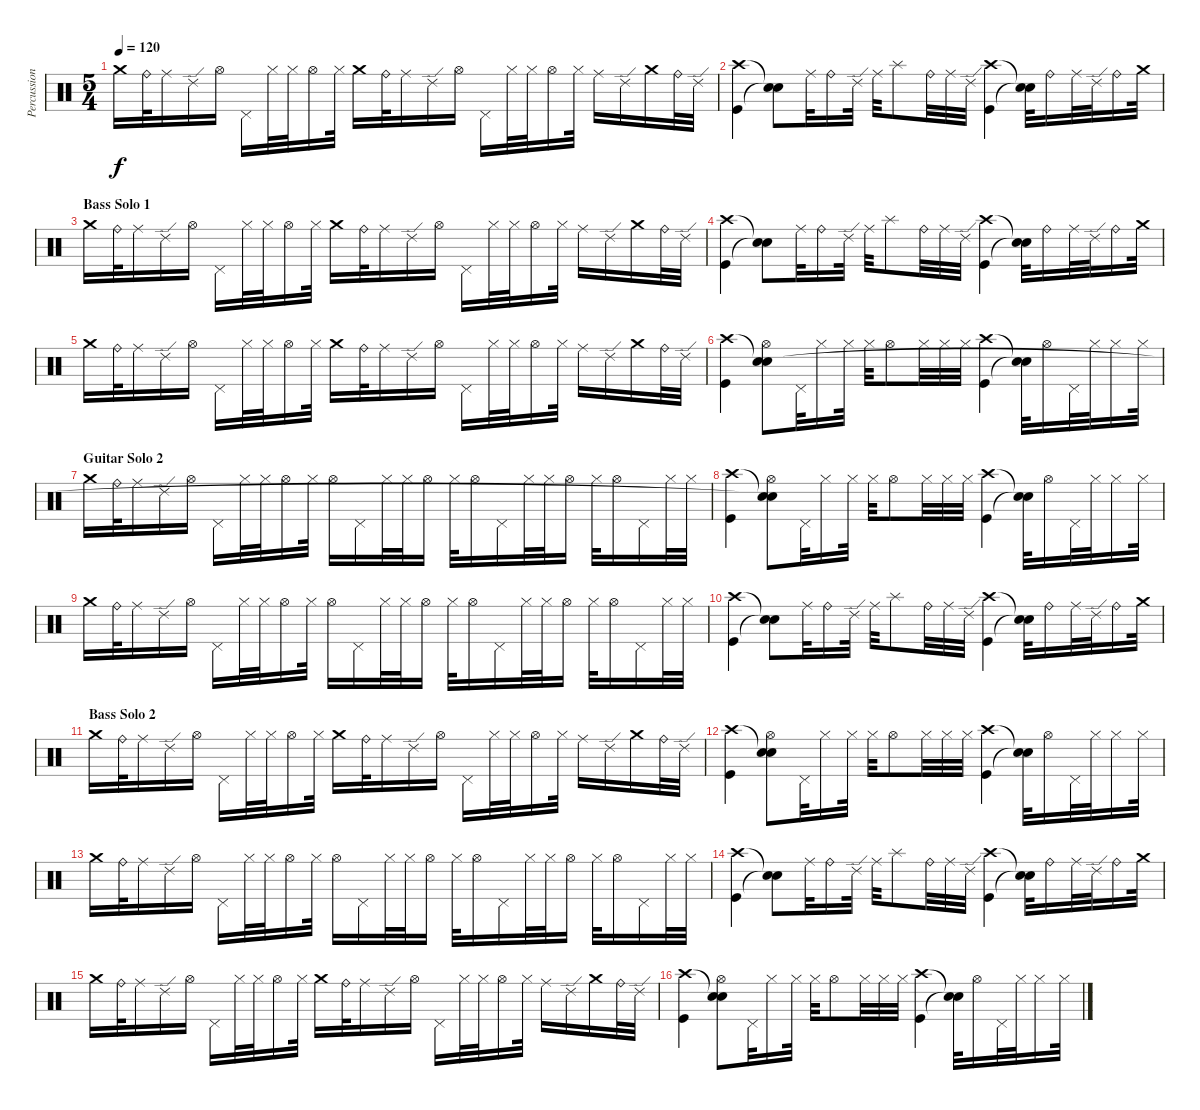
\track ("Percussion" "Percussion") {instrument percussion}
\staff {score}
\articulation defaults
\ts (5 4)
\tempo 120
\clef neutral
\ks c "Crash medium (hit)".16{dy f} "Ride (bell)".32 "Ride (middle)".16 "Ride (edge) 2".16 "Hi-Hat (open)".16 "Pedal Hi-Hat (hit)".16 "Hi-Hat (closed)".32 "Hi-Hat (closed)".32 "Hi-Hat (open)".16 "Hi-Hat (closed)".32 "Crash medium (hit)".16 "Ride (bell)".32 "Ride (middle)".16 "Ride (edge) 2".16 "Hi-Hat (open)".16 "Pedal Hi-Hat (hit)".16 "Hi-Hat (closed)".32 "Hi-Hat (closed)".32 "Hi-Hat (open)".16 "Hi-Hat (closed)".32 "Ride (middle)".16 "Ride (edge) 2".16 "Crash medium (hit)".16 "Ride (bell)".32 "Ride (edge) 2".32
|
("Crash high (hit)" "Kick (hit)").4 ("Snare (hit)"{t} "Snare (hit)"{t}).8 "Ride (middle)".32 "Ride (bell)".16 "Ride (edge) 2".32 "Ride (middle)".32 "Splash (hit)".8 "Ride (bell)".32 "Ride (middle)".32 "Ride (edge) 2".32 ("Crash high (hit)" "Kick (hit)").4 ("Snare (hit)"{t} "Snare (hit)"{t}).32 "Ride (bell)".16 "Ride (middle)".32 "Ride (edge) 2".32 "Ride (bell)".16 "Crash medium (hit)".32 |
\section ("" "Bass Solo 1")
"Crash medium (hit)".16 "Ride (bell)".32 "Ride (middle)".16 "Ride (edge) 2".16 "Hi-Hat (open)".16 "Pedal Hi-Hat (hit)".16 "Hi-Hat (closed)".32 "Hi-Hat (closed)".32 "Hi-Hat (open)".16 "Hi-Hat (closed)".32 "Crash medium (hit)".16 "Ride (bell)".32 "Ride (middle)".16 "Ride (edge) 2".16 "Hi-Hat (open)".16 "Pedal Hi-Hat (hit)".16 "Hi-Hat (closed)".32 "Hi-Hat (closed)".32 "Hi-Hat (open)".16 "Hi-Hat (closed)".32 "Ride (middle)".16 "Ride (edge) 2".16 "Crash medium (hit)".16 "Ride (bell)".32 "Ride (edge) 2".32 |
("Crash high (hit)" "Kick (hit)").4 ("Snare (hit)"{t} "Snare (hit)"{t}).8 "Ride (middle)".32 "Ride (bell)".16 "Ride (edge) 2".32 "Ride (middle)".32 "Splash (hit)".8 "Ride (bell)".32 "Ride (middle)".32 "Ride (edge) 2".32 ("Crash high (hit)" "Kick (hit)").4 ("Snare (hit)"{t} "Snare (hit)"{t}).32 "Ride (bell)".16 "Ride (middle)".32 "Ride (edge) 2".32 "Ride (bell)".16 "Crash medium (hit)".32 |
"Crash medium (hit)".16 "Ride (bell)".32 "Ride (middle)".16 "Ride (edge) 2".16 "Hi-Hat (open)".16 "Pedal Hi-Hat (hit)".16 "Hi-Hat (closed)".32 "Hi-Hat (closed)".32 "Hi-Hat (open)".16 "Hi-Hat (closed)".32 "Crash medium (hit)".16 "Ride (bell)".32 "Ride (middle)".16 "Ride (edge) 2".16 "Hi-Hat (open)".16 "Pedal Hi-Hat (hit)".16 "Hi-Hat (closed)".32 "Hi-Hat (closed)".32 "Hi-Hat (open)".16 "Hi-Hat (closed)".32 "Ride (middle)".16 "Ride (edge) 2".16 "Crash medium (hit)".16 "Ride (bell)".32 "Ride (edge) 2".32 |
("Crash high (hit)" "Kick (hit)").4 ("Snare (hit)"{t} "Hi-Hat (open)" "Snare (hit)").8 "Pedal Hi-Hat (hit)".32 "Hi-Hat (closed)".16 "Hi-Hat (closed)".32 "Hi-Hat (closed)".32 "Hi-Hat (open)".8 "Hi-Hat (closed)".32 "Hi-Hat (closed)".32 "Hi-Hat (closed)".32 ("Crash high (hit)" "Kick (hit)").4 ("Snare (hit)"{t} "Snare (hit)"{t}).32 "Hi-Hat (open)".16 "Pedal Hi-Hat (hit)".32 "Hi-Hat (closed)".32 "Hi-Hat (closed)".16 "Hi-Hat (closed)".32 |
\section ("" "Guitar Solo 2")
"Crash medium (hit)".16 "Ride (bell)".32 "Ride (middle)".16 "Ride (edge) 2".16 "Hi-Hat (open)".16 "Pedal Hi-Hat (hit)".16 "Hi-Hat (closed)".32 "Hi-Hat (closed)".32 "Hi-Hat (open)".16 "Hi-Hat (closed)".32 "Hi-Hat (open)".16 "Pedal Hi-Hat (hit)".16 "Hi-Hat (closed)".32 "Hi-Hat (closed)".32 "Hi-Hat (open)".16 "Hi-Hat (closed)".32 "Hi-Hat (open)".16 "Pedal Hi-Hat (hit)".16 "Hi-Hat (closed)".32 "Hi-Hat (closed)".32 "Hi-Hat (open)".16 "Hi-Hat (closed)".32 "Hi-Hat (open)".16 "Pedal Hi-Hat (hit)".16 "Hi-Hat (closed)".32 "Hi-Hat (closed)".32 |
("Crash high (hit)" "Kick (hit)").4 ("Snare (hit)"{t} "Hi-Hat (open)" "Snare (hit)"{t}).8 "Pedal Hi-Hat (hit)".32 "Hi-Hat (closed)".16 "Hi-Hat (closed)".32 "Hi-Hat (closed)".32 "Hi-Hat (open)".8 "Hi-Hat (closed)".32 "Hi-Hat (closed)".32 "Hi-Hat (closed)".32 ("Crash high (hit)" "Kick (hit)").4 ("Snare (hit)"{t} "Snare (hit)"{t}).32 "Hi-Hat (open)".16 "Pedal Hi-Hat (hit)".32 "Hi-Hat (closed)".32 "Hi-Hat (closed)".16 "Hi-Hat (closed)".32 |
"Crash medium (hit)".16 "Ride (bell)".32 "Ride (middle)".16 "Ride (edge) 2".16 "Hi-Hat (open)".16 "Pedal Hi-Hat (hit)".16 "Hi-Hat (closed)".32 "Hi-Hat (closed)".32 "Hi-Hat (open)".16 "Hi-Hat (closed)".32 "Hi-Hat (open)".16 "Pedal Hi-Hat (hit)".16 "Hi-Hat (closed)".32 "Hi-Hat (closed)".32 "Hi-Hat (open)".16 "Hi-Hat (closed)".32 "Hi-Hat (open)".16 "Pedal Hi-Hat (hit)".16 "Hi-Hat (closed)".32 "Hi-Hat (closed)".32 "Hi-Hat (open)".16 "Hi-Hat (closed)".32 "Hi-Hat (open)".16 "Pedal Hi-Hat (hit)".16 "Hi-Hat (closed)".32 "Hi-Hat (closed)".32 |
("Crash high (hit)" "Kick (hit)").4 ("Snare (hit)"{t} "Snare (hit)"{t}).8 "Ride (middle)".32 "Ride (bell)".16 "Ride (edge) 2".32 "Ride (middle)".32 "Splash (hit)".8 "Ride (bell)".32 "Ride (middle)".32 "Ride (edge) 2".32 ("Crash high (hit)" "Kick (hit)").4 ("Snare (hit)"{t} "Snare (hit)"{t}).32 "Ride (bell)".16 "Ride (middle)".32 "Ride (edge) 2".32 "Ride (bell)".16 "Crash medium (hit)".32 |
\section ("" "Bass Solo 2")
"Crash medium (hit)".16 "Ride (bell)".32 "Ride (middle)".16 "Ride (edge) 2".16 "Hi-Hat (open)".16 "Pedal Hi-Hat (hit)".16 "Hi-Hat (closed)".32 "Hi-Hat (closed)".32 "Hi-Hat (open)".16 "Hi-Hat (closed)".32 "Crash medium (hit)".16 "Ride (bell)".32 "Ride (middle)".16 "Ride (edge) 2".16 "Hi-Hat (open)".16 "Pedal Hi-Hat (hit)".16 "Hi-Hat (closed)".32 "Hi-Hat (closed)".32 "Hi-Hat (open)".16 "Hi-Hat (closed)".32 "Ride (middle)".16 "Ride (edge) 2".16 "Crash medium (hit)".16 "Ride (bell)".32 "Ride (edge) 2".32 |
("Crash high (hit)" "Kick (hit)").4 ("Snare (hit)"{t} "Hi-Hat (open)" "Snare (hit)").8 "Pedal Hi-Hat (hit)".32 "Hi-Hat (closed)".16 "Hi-Hat (closed)".32 "Hi-Hat (closed)".32 "Hi-Hat (open)".8 "Hi-Hat (closed)".32 "Hi-Hat (closed)".32 "Hi-Hat (closed)".32 ("Crash high (hit)" "Kick (hit)").4 ("Snare (hit)"{t} "Snare (hit)"{t}).32 "Hi-Hat (open)".16 "Pedal Hi-Hat (hit)".32 "Hi-Hat (closed)".32 "Hi-Hat (closed)".16 "Hi-Hat (closed)".32 |
"Crash medium (hit)".16 "Ride (bell)".32 "Ride (middle)".16 "Ride (edge) 2".16 "Hi-Hat (open)".16 "Pedal Hi-Hat (hit)".16 "Hi-Hat (closed)".32 "Hi-Hat (closed)".32 "Hi-Hat (open)".16 "Hi-Hat (closed)".32 "Hi-Hat (open)".16 "Pedal Hi-Hat (hit)".16 "Hi-Hat (closed)".32 "Hi-Hat (closed)".32 "Hi-Hat (open)".16 "Hi-Hat (closed)".32 "Hi-Hat (open)".16 "Pedal Hi-Hat (hit)".16 "Hi-Hat (closed)".32 "Hi-Hat (closed)".32 "Hi-Hat (open)".16 "Hi-Hat (closed)".32 "Hi-Hat (open)".16 "Pedal Hi-Hat (hit)".16 "Hi-Hat (closed)".32 "Hi-Hat (closed)".32 |
("Crash high (hit)" "Kick (hit)").4 ("Snare (hit)"{t} "Snare (hit)"{t}).8 "Ride (middle)".32 "Ride (bell)".16 "Ride (edge) 2".32 "Ride (middle)".32 "Splash (hit)".8 "Ride (bell)".32 "Ride (middle)".32 "Ride (edge) 2".32 ("Crash high (hit)" "Kick (hit)").4 ("Snare (hit)"{t} "Snare (hit)"{t}).32 "Ride (bell)".16 "Ride (middle)".32 "Ride (edge) 2".32 "Ride (bell)".16 "Crash medium (hit)".32 |
"Crash medium (hit)".16 "Ride (bell)".32 "Ride (middle)".16 "Ride (edge) 2".16 "Hi-Hat (open)".16 "Pedal Hi-Hat (hit)".16 "Hi-Hat (closed)".32 "Hi-Hat (closed)".32 "Hi-Hat (open)".16 "Hi-Hat (closed)".32 "Crash medium (hit)".16 "Ride (bell)".32 "Ride (middle)".16 "Ride (edge) 2".16 "Hi-Hat (open)".16 "Pedal Hi-Hat (hit)".16 "Hi-Hat (closed)".32 "Hi-Hat (closed)".32 "Hi-Hat (open)".16 "Hi-Hat (closed)".32 "Ride (middle)".16 "Ride (edge) 2".16 "Crash medium (hit)".16 "Ride (bell)".32 "Ride (edge) 2".32 |
("Crash high (hit)" "Kick (hit)").4 ("Snare (hit)"{t} "Hi-Hat (open)" "Snare (hit)").8 "Pedal Hi-Hat (hit)".32 "Hi-Hat (closed)".16 "Hi-Hat (closed)".32 "Hi-Hat (closed)".32 "Hi-Hat (open)".8 "Hi-Hat (closed)".32 "Hi-Hat (closed)".32 "Hi-Hat (closed)".32 ("Crash high (hit)" "Kick (hit)").4 ("Snare (hit)"{t} "Snare (hit)"{t}).32 "Hi-Hat (open)".16 "Pedal Hi-Hat (hit)".32 "Hi-Hat (closed)".32 "Hi-Hat (closed)".16 "Hi-Hat (closed)".32
